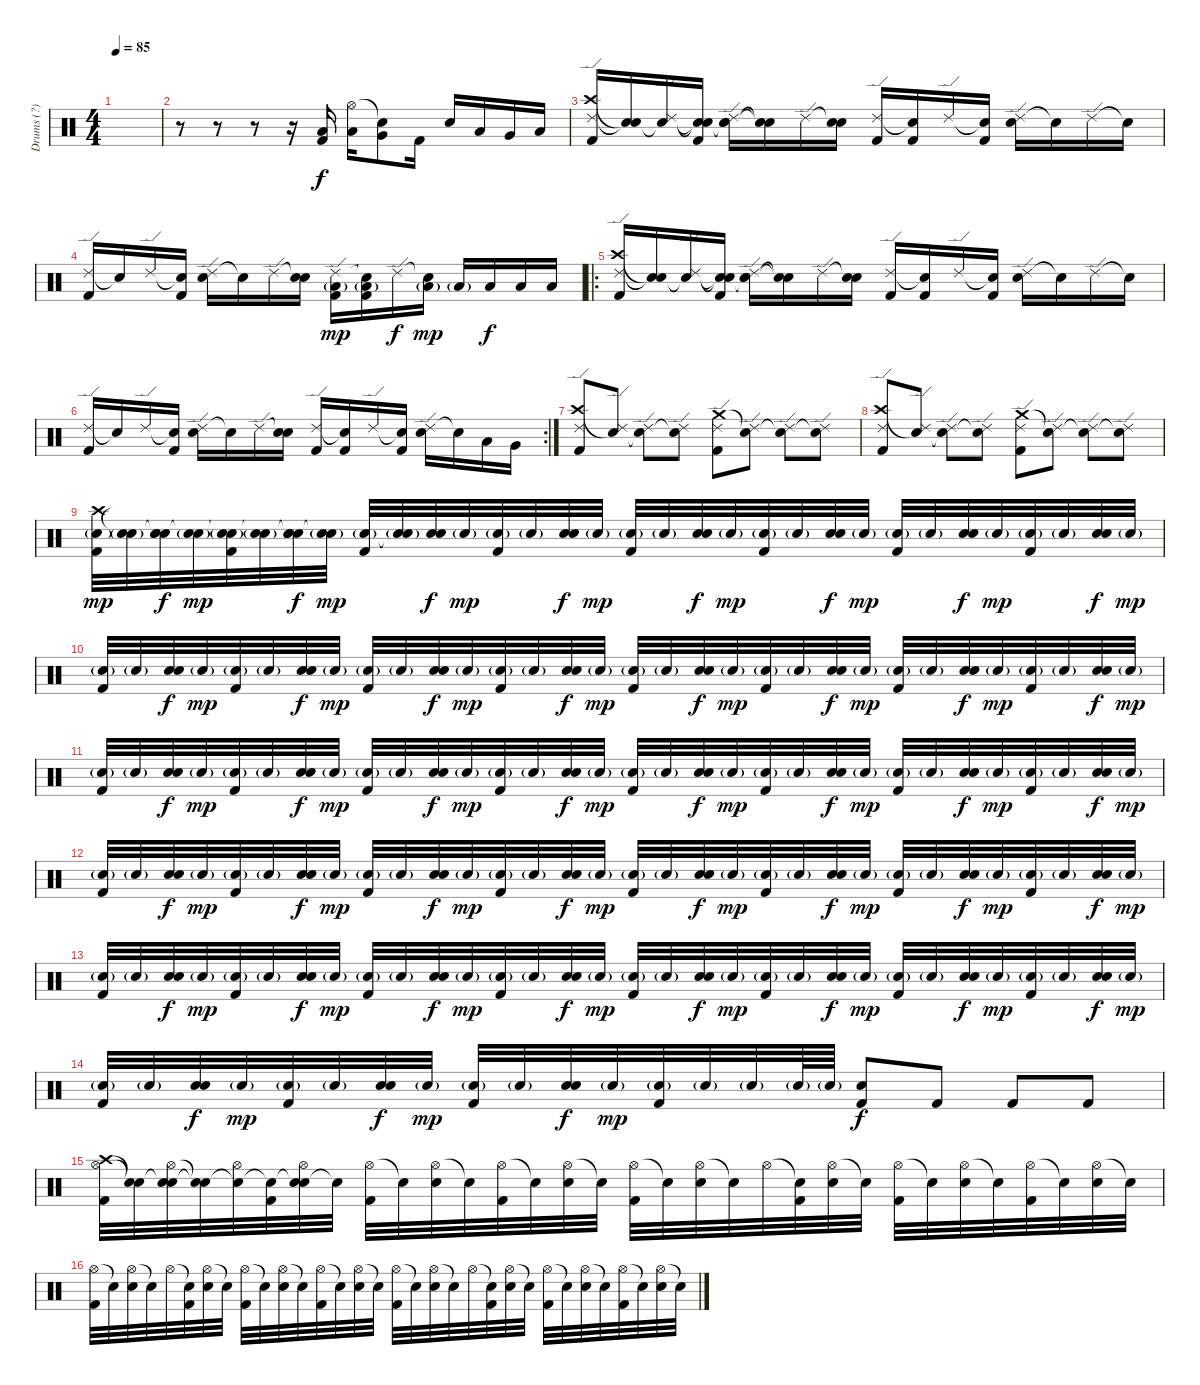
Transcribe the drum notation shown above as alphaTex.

\track ("Drums (?)" "Drums (?)") {instrument percussion}
\staff {score}
\articulation defaults
\ts (4 4)
\tempo 85
\clef neutral
\ks c
|
r.8 r.8 r.8 r.16 ("Low Tom (hit)" "Kick (hit) 2").16 ("Hi-Hat (open)" "Low Tom (hit)").16 ("Snare (hit)"{t} "Very Low Tom (hit)").8 "Kick (hit) 2".16 "Electric Snare (hit)".16 "Low Tom (hit)".16 "Very Low Tom (hit)".16 "Low Floor Tom (hit)".16 |
("Crash high (hit)" "Ride (edge) 2" "Kick (hit) 2").16 ("Snare (hit)"{t} "Snare (hit)"{t}).16 ("Snare (hit)"{t} "Ride (edge) 2").16 ("Snare (hit)"{t} "Snare (hit)"{t} "Kick (hit) 2").16 ("Snare (hit)"{t} "Ride (edge) 2" "Electric Snare (hit)").16 ("Snare (hit)"{t} "Snare (hit)"{t}).16 "Ride (edge) 2".16 ("Snare (hit)"{t} "Electric Snare (hit)").16 ("Ride (edge) 2" "Kick (hit) 2").16 ("Snare (hit)"{t} "Kick (hit) 2").16 "Ride (edge) 2".16 ("Snare (hit)"{t} "Kick (hit) 2").16 ("Ride (edge) 2" "Electric Snare (hit)").16 "Snare (hit)"{t}.16 "Ride (edge) 2".16 "Snare (hit)"{t}.16 |
("Ride (edge) 2" "Kick (hit) 2").16 "Snare (hit)"{t}.16 "Ride (edge) 2".16 ("Snare (hit)"{t} "Kick (hit) 2").16 ("Ride (edge) 2" "Electric Snare (hit)").16 "Snare (hit)"{t}.16 "Ride (edge) 2".16 ("Snare (hit)"{t} "Electric Snare (hit)").16 ("Ride (edge) 2" "Low Tom (hit)"{g} "Kick (hit) 2").16{dy mp} ("Snare (hit)"{t} "Low Tom (hit)"{g} "Kick (hit) 2").16 "Ride (edge) 2".16{dy f} ("Snare (hit)"{t} "Low Tom (hit)"{g}).16{dy mp} "Low Tom (hit)"{g}.16 "Low Tom (hit)".16{dy f} "Low Tom (hit)".16 "Low Tom (hit)".16 |
\ro
("Crash high (hit)" "Ride (edge) 2" "Kick (hit) 2").16 ("Snare (hit)"{t} "Snare (hit)"{t}).16 ("Snare (hit)"{t} "Ride (edge) 2").16 ("Snare (hit)"{t} "Snare (hit)"{t} "Kick (hit) 2").16 ("Snare (hit)"{t} "Ride (edge) 2" "Electric Snare (hit)").16 ("Snare (hit)"{t} "Snare (hit)"{t}).16 "Ride (edge) 2".16 ("Snare (hit)"{t} "Electric Snare (hit)").16 ("Ride (edge) 2" "Kick (hit) 2").16 ("Snare (hit)"{t} "Kick (hit) 2").16 "Ride (edge) 2".16 ("Snare (hit)"{t} "Kick (hit) 2").16 ("Ride (edge) 2" "Electric Snare (hit)").16 "Snare (hit)"{t}.16 "Ride (edge) 2".16 "Snare (hit)"{t}.16 |
\rc 2
("Ride (edge) 2" "Kick (hit) 2").16 "Snare (hit)"{t}.16 "Ride (edge) 2".16 ("Snare (hit)"{t} "Kick (hit) 2").16 ("Ride (edge) 2" "Electric Snare (hit)").16 "Snare (hit)"{t}.16 "Ride (edge) 2".16 ("Snare (hit)"{t} "Electric Snare (hit)").16 ("Ride (edge) 2" "Kick (hit) 2").16 ("Snare (hit)"{t} "Kick (hit) 2").16 "Ride (edge) 2".16 ("Snare (hit)"{t} "Kick (hit) 2").16 ("Ride (edge) 2" "Electric Snare (hit)").16 "Snare (hit)"{t}.16 "Low Tom (hit)".16 "Very Low Tom (hit)".16 |
("Crash high (hit)" "Ride (edge) 2" "Kick (hit) 2").8 ("Snare (hit)"{t} "Ride (edge) 2").8 ("Snare (hit)"{t} "Ride (edge) 2").8 ("Snare (hit)"{t} "Ride (edge) 2").8 ("Crash medium (hit)" "Ride (edge) 2" "Kick (hit) 2").8 ("Snare (hit)"{t} "Ride (edge) 2").8 ("Snare (hit)"{t} "Ride (edge) 2").8 ("Snare (hit)"{t} "Ride (edge) 2").8 |
("Crash high (hit)" "Ride (edge) 2" "Kick (hit) 2").8 ("Snare (hit)"{t} "Ride (edge) 2").8 ("Snare (hit)"{t} "Ride (edge) 2").8 ("Snare (hit)"{t} "Ride (edge) 2").8 ("Crash medium (hit)" "Ride (edge) 2" "Kick (hit) 2").8 ("Snare (hit)"{t} "Ride (edge) 2").8 ("Snare (hit)"{t} "Ride (edge) 2").8 ("Snare (hit)"{t} "Ride (edge) 2").8 |
("Crash high (hit)" "Snare (hit) 2"{g} "Kick (hit) 2").32{dy mp volume 10} ("Snare (hit)"{t} "Snare (hit) 2"{g}).32 ("Snare (hit)"{t} "Electric Snare (hit)" "Snare (hit) 2").32{dy f} ("Snare (hit)"{t} "Snare (hit) 2"{g}).32{dy mp} ("Snare (hit)"{t} "Snare (hit) 2"{g} "Kick (hit) 2").32 ("Snare (hit)"{t} "Snare (hit) 2"{g}).32 ("Snare (hit)"{t} "Electric Snare (hit)" "Snare (hit) 2").32{dy f} ("Snare (hit)"{t} "Snare (hit) 2"{g}).32{dy mp} ("Snare (hit) 2"{g} "Kick (hit) 2").32 ("Snare (hit)"{t} "Snare (hit) 2"{g}).32 ("Electric Snare (hit)" "Snare (hit) 2").32{dy f} "Snare (hit) 2"{g}.32{dy mp} ("Snare (hit) 2"{g} "Kick (hit) 2").32 "Snare (hit) 2"{g}.32 ("Electric Snare (hit)" "Snare (hit) 2").32{dy f} "Snare (hit) 2"{g}.32{dy mp} ("Snare (hit) 2"{g} "Kick (hit) 2").32 "Snare (hit) 2"{g}.32 ("Electric Snare (hit)" "Snare (hit) 2").32{dy f} "Snare (hit) 2"{g}.32{dy mp} ("Snare (hit) 2"{g} "Kick (hit) 2").32 "Snare (hit) 2"{g}.32 ("Electric Snare (hit)" "Snare (hit) 2").32{dy f} "Snare (hit) 2"{g}.32{dy mp} ("Snare (hit) 2"{g} "Kick (hit) 2").32 "Snare (hit) 2"{g}.32 ("Electric Snare (hit)" "Snare (hit) 2").32{dy f} "Snare (hit) 2"{g}.32{dy mp} ("Snare (hit) 2"{g} "Kick (hit) 2").32 "Snare (hit) 2"{g}.32 ("Electric Snare (hit)" "Snare (hit) 2").32{dy f} "Snare (hit) 2"{g}.32{dy mp} |
("Snare (hit) 2"{g} "Kick (hit) 2").32{volume 10} "Snare (hit) 2"{g}.32 ("Electric Snare (hit)" "Snare (hit) 2").32{dy f} "Snare (hit) 2"{g}.32{dy mp} ("Snare (hit) 2"{g} "Kick (hit) 2").32 "Snare (hit) 2"{g}.32 ("Electric Snare (hit)" "Snare (hit) 2").32{dy f} "Snare (hit) 2"{g}.32{dy mp} ("Snare (hit) 2"{g} "Kick (hit) 2").32 "Snare (hit) 2"{g}.32 ("Electric Snare (hit)" "Snare (hit) 2").32{dy f} "Snare (hit) 2"{g}.32{dy mp} ("Snare (hit) 2"{g} "Kick (hit) 2").32 "Snare (hit) 2"{g}.32 ("Electric Snare (hit)" "Snare (hit) 2").32{dy f} "Snare (hit) 2"{g}.32{dy mp} ("Snare (hit) 2"{g} "Kick (hit) 2").32 "Snare (hit) 2"{g}.32 ("Electric Snare (hit)" "Snare (hit) 2").32{dy f} "Snare (hit) 2"{g}.32{dy mp} ("Snare (hit) 2"{g} "Kick (hit) 2").32 "Snare (hit) 2"{g}.32 ("Electric Snare (hit)" "Snare (hit) 2").32{dy f} "Snare (hit) 2"{g}.32{dy mp} ("Snare (hit) 2"{g} "Kick (hit) 2").32 "Snare (hit) 2"{g}.32 ("Electric Snare (hit)" "Snare (hit) 2").32{dy f} "Snare (hit) 2"{g}.32{dy mp} ("Snare (hit) 2"{g} "Kick (hit) 2").32 "Snare (hit) 2"{g}.32 ("Electric Snare (hit)" "Snare (hit) 2").32{dy f} "Snare (hit) 2"{g}.32{dy mp} |
("Snare (hit) 2"{g} "Kick (hit) 2").32{volume 10} "Snare (hit) 2"{g}.32 ("Electric Snare (hit)" "Snare (hit) 2").32{dy f} "Snare (hit) 2"{g}.32{dy mp} ("Snare (hit) 2"{g} "Kick (hit) 2").32 "Snare (hit) 2"{g}.32 ("Electric Snare (hit)" "Snare (hit) 2").32{dy f} "Snare (hit) 2"{g}.32{dy mp} ("Snare (hit) 2"{g} "Kick (hit) 2").32 "Snare (hit) 2"{g}.32 ("Electric Snare (hit)" "Snare (hit) 2").32{dy f} "Snare (hit) 2"{g}.32{dy mp} ("Snare (hit) 2"{g} "Kick (hit) 2").32 "Snare (hit) 2"{g}.32 ("Electric Snare (hit)" "Snare (hit) 2").32{dy f} "Snare (hit) 2"{g}.32{dy mp} ("Snare (hit) 2"{g} "Kick (hit) 2").32 "Snare (hit) 2"{g}.32 ("Electric Snare (hit)" "Snare (hit) 2").32{dy f} "Snare (hit) 2"{g}.32{dy mp} ("Snare (hit) 2"{g} "Kick (hit) 2").32 "Snare (hit) 2"{g}.32 ("Electric Snare (hit)" "Snare (hit) 2").32{dy f} "Snare (hit) 2"{g}.32{dy mp} ("Snare (hit) 2"{g} "Kick (hit) 2").32 "Snare (hit) 2"{g}.32 ("Electric Snare (hit)" "Snare (hit) 2").32{dy f} "Snare (hit) 2"{g}.32{dy mp} ("Snare (hit) 2"{g} "Kick (hit) 2").32 "Snare (hit) 2"{g}.32 ("Electric Snare (hit)" "Snare (hit) 2").32{dy f} "Snare (hit) 2"{g}.32{dy mp} |
("Snare (hit) 2"{g} "Kick (hit) 2").32{volume 10} "Snare (hit) 2"{g}.32 ("Electric Snare (hit)" "Snare (hit) 2").32{dy f} "Snare (hit) 2"{g}.32{dy mp} ("Snare (hit) 2"{g} "Kick (hit) 2").32 "Snare (hit) 2"{g}.32 ("Electric Snare (hit)" "Snare (hit) 2").32{dy f} "Snare (hit) 2"{g}.32{dy mp} ("Snare (hit) 2"{g} "Kick (hit) 2").32 "Snare (hit) 2"{g}.32 ("Electric Snare (hit)" "Snare (hit) 2").32{dy f} "Snare (hit) 2"{g}.32{dy mp} ("Snare (hit) 2"{g} "Kick (hit) 2").32 "Snare (hit) 2"{g}.32 ("Electric Snare (hit)" "Snare (hit) 2").32{dy f} "Snare (hit) 2"{g}.32{dy mp} ("Snare (hit) 2"{g} "Kick (hit) 2").32 "Snare (hit) 2"{g}.32 ("Electric Snare (hit)" "Snare (hit) 2").32{dy f} "Snare (hit) 2"{g}.32{dy mp} ("Snare (hit) 2"{g} "Kick (hit) 2").32 "Snare (hit) 2"{g}.32 ("Electric Snare (hit)" "Snare (hit) 2").32{dy f} "Snare (hit) 2"{g}.32{dy mp} ("Snare (hit) 2"{g} "Kick (hit) 2").32 "Snare (hit) 2"{g}.32 ("Electric Snare (hit)" "Snare (hit) 2").32{dy f} "Snare (hit) 2"{g}.32{dy mp} ("Snare (hit) 2"{g} "Kick (hit) 2").32 "Snare (hit) 2"{g}.32 ("Electric Snare (hit)" "Snare (hit) 2").32{dy f} "Snare (hit) 2"{g}.32{dy mp} |
("Snare (hit) 2"{g} "Kick (hit) 2").32{volume 10} "Snare (hit) 2"{g}.32 ("Electric Snare (hit)" "Snare (hit) 2").32{dy f} "Snare (hit) 2"{g}.32{dy mp} ("Snare (hit) 2"{g} "Kick (hit) 2").32 "Snare (hit) 2"{g}.32 ("Electric Snare (hit)" "Snare (hit) 2").32{dy f} "Snare (hit) 2"{g}.32{dy mp} ("Snare (hit) 2"{g} "Kick (hit) 2").32 "Snare (hit) 2"{g}.32 ("Electric Snare (hit)" "Snare (hit) 2").32{dy f} "Snare (hit) 2"{g}.32{dy mp} ("Snare (hit) 2"{g} "Kick (hit) 2").32 "Snare (hit) 2"{g}.32 ("Electric Snare (hit)" "Snare (hit) 2").32{dy f} "Snare (hit) 2"{g}.32{dy mp} ("Snare (hit) 2"{g} "Kick (hit) 2").32 "Snare (hit) 2"{g}.32 ("Electric Snare (hit)" "Snare (hit) 2").32{dy f} "Snare (hit) 2"{g}.32{dy mp} ("Snare (hit) 2"{g} "Kick (hit) 2").32 "Snare (hit) 2"{g}.32 ("Electric Snare (hit)" "Snare (hit) 2").32{dy f} "Snare (hit) 2"{g}.32{dy mp} ("Snare (hit) 2"{g} "Kick (hit) 2").32 "Snare (hit) 2"{g}.32 ("Electric Snare (hit)" "Snare (hit) 2").32{dy f} "Snare (hit) 2"{g}.32{dy mp} ("Snare (hit) 2"{g} "Kick (hit) 2").32 "Snare (hit) 2"{g}.32 ("Electric Snare (hit)" "Snare (hit) 2").32{dy f} "Snare (hit) 2"{g}.32{dy mp} |
("Snare (hit) 2"{g} "Kick (hit) 2").32{volume 10} "Snare (hit) 2"{g}.32 ("Electric Snare (hit)" "Snare (hit) 2").32{dy f} "Snare (hit) 2"{g}.32{dy mp} ("Snare (hit) 2"{g} "Kick (hit) 2").32 "Snare (hit) 2"{g}.32 ("Electric Snare (hit)" "Snare (hit) 2").32{dy f} "Snare (hit) 2"{g}.32{dy mp} ("Snare (hit) 2"{g} "Kick (hit) 2").32 "Snare (hit) 2"{g}.32 ("Electric Snare (hit)" "Snare (hit) 2").32{dy f} "Snare (hit) 2"{g}.32{dy mp} ("Snare (hit) 2"{g} "Kick (hit) 2").32 "Snare (hit) 2"{g}.32 "Snare (hit) 2"{g}.32 "Snare (hit) 2"{g}.64 "Snare (hit) 2"{g}.64 ("Snare (hit) 2" "Kick (hit) 2").8{dy f} "Kick (hit) 2".8 "Kick (hit) 2".8 "Kick (hit) 2".8 |
("Crash high (hit)" "Hi-Hat (open)" "Kick (hit) 2").32{volume 14} ("Snare (hit)"{t} "Snare (hit)"{t}).32 ("Snare (hit)"{t} "Hi-Hat (open)" "Electric Snare (hit)").32 ("Snare (hit)"{t} "Snare (hit)"{t}).32 ("Snare (hit)"{t} "Hi-Hat (open)").32 ("Snare (hit)"{t} "Kick (hit) 2").32 ("Snare (hit)"{t} "Hi-Hat (open)" "Electric Snare (hit)").32 "Snare (hit)"{t}.32 ("Hi-Hat (open)" "Kick (hit) 2").32 "Snare (hit)"{t}.32 ("Hi-Hat (open)" "Electric Snare (hit)").32 "Snare (hit)"{t}.32 ("Hi-Hat (open)" "Kick (hit) 2").32 "Snare (hit)"{t}.32 ("Hi-Hat (open)" "Electric Snare (hit)").32 "Snare (hit)"{t}.32 ("Hi-Hat (open)" "Kick (hit) 2").32 "Snare (hit)"{t}.32 ("Hi-Hat (open)" "Electric Snare (hit)").32 "Snare (hit)"{t}.32 "Hi-Hat (open)".32 ("Snare (hit)"{t} "Kick (hit) 2").32 ("Hi-Hat (open)" "Electric Snare (hit)").32 "Snare (hit)"{t}.32 ("Hi-Hat (open)" "Kick (hit) 2").32 "Snare (hit)"{t}.32 ("Hi-Hat (open)" "Electric Snare (hit)").32 "Snare (hit)"{t}.32 ("Hi-Hat (open)" "Kick (hit) 2").32 "Snare (hit)"{t}.32 ("Hi-Hat (open)" "Electric Snare (hit)").32 "Snare (hit)"{t}.32 |
("Hi-Hat (open)" "Kick (hit) 2").32 "Snare (hit)"{t}.32 ("Hi-Hat (open)" "Electric Snare (hit)").32 "Snare (hit)"{t}.32 "Hi-Hat (open)".32 ("Snare (hit)"{t} "Kick (hit) 2").32 ("Hi-Hat (open)" "Electric Snare (hit)").32 "Snare (hit)"{t}.32 ("Hi-Hat (open)" "Kick (hit) 2").32 "Snare (hit)"{t}.32 ("Hi-Hat (open)" "Electric Snare (hit)").32 "Snare (hit)"{t}.32 ("Hi-Hat (open)" "Kick (hit) 2").32 "Snare (hit)"{t}.32 ("Hi-Hat (open)" "Electric Snare (hit)").32 "Snare (hit)"{t}.32 ("Hi-Hat (open)" "Kick (hit) 2").32 "Snare (hit)"{t}.32 ("Hi-Hat (open)" "Electric Snare (hit)").32 "Snare (hit)"{t}.32 "Hi-Hat (open)".32 ("Snare (hit)"{t} "Kick (hit) 2").32 ("Hi-Hat (open)" "Electric Snare (hit)").32 "Snare (hit)"{t}.32 ("Hi-Hat (open)" "Kick (hit) 2").32 "Snare (hit)"{t}.32 ("Hi-Hat (open)" "Electric Snare (hit)").32 "Snare (hit)"{t}.32 ("Hi-Hat (open)" "Kick (hit) 2").32 "Snare (hit)"{t}.32 ("Hi-Hat (open)" "Electric Snare (hit)").32 "Snare (hit)"{t}.32
